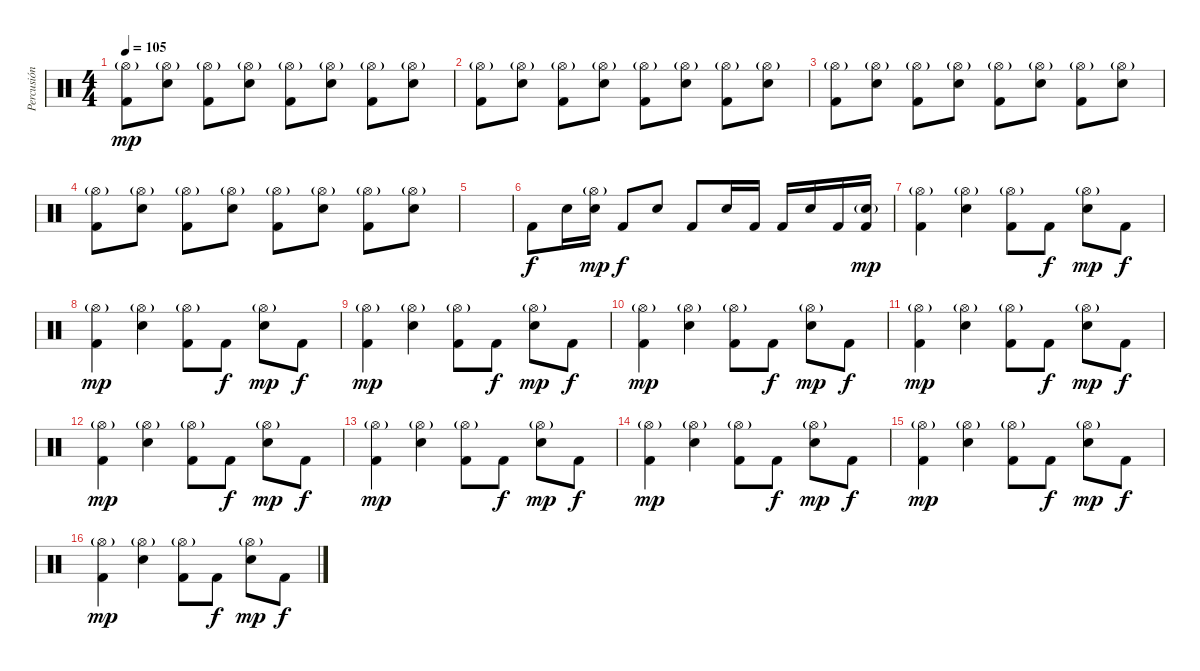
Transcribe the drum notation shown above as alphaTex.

\track ("Percusión" "Percusión") {instrument percussion}
\staff {score}
\articulation defaults
\ts (4 4)
\tempo 105
\clef neutral
\ks c
("Hi-Hat (open)"{g} "Kick (hit) 2").8{dy mp} ("Hi-Hat (open)"{g} "Electric Snare (hit)").8 ("Hi-Hat (open)"{g} "Kick (hit) 2").8 ("Hi-Hat (open)"{g} "Electric Snare (hit)").8 ("Hi-Hat (open)"{g} "Kick (hit) 2").8 ("Hi-Hat (open)"{g} "Electric Snare (hit)").8 ("Hi-Hat (open)"{g} "Kick (hit) 2").8 ("Hi-Hat (open)"{g} "Electric Snare (hit)").8 |
("Hi-Hat (open)"{g} "Kick (hit) 2").8 ("Hi-Hat (open)"{g} "Electric Snare (hit)").8 ("Hi-Hat (open)"{g} "Kick (hit) 2").8 ("Hi-Hat (open)"{g} "Electric Snare (hit)").8 ("Hi-Hat (open)"{g} "Kick (hit) 2").8 ("Hi-Hat (open)"{g} "Electric Snare (hit)").8 ("Hi-Hat (open)"{g} "Kick (hit) 2").8 ("Hi-Hat (open)"{g} "Electric Snare (hit)").8 |
("Hi-Hat (open)"{g} "Kick (hit) 2").8 ("Hi-Hat (open)"{g} "Electric Snare (hit)").8 ("Hi-Hat (open)"{g} "Kick (hit) 2").8 ("Hi-Hat (open)"{g} "Electric Snare (hit)").8 ("Hi-Hat (open)"{g} "Kick (hit) 2").8 ("Hi-Hat (open)"{g} "Electric Snare (hit)").8 ("Hi-Hat (open)"{g} "Kick (hit) 2").8 ("Hi-Hat (open)"{g} "Electric Snare (hit)").8 |
("Hi-Hat (open)"{g} "Kick (hit) 2").8 ("Hi-Hat (open)"{g} "Electric Snare (hit)").8 ("Hi-Hat (open)"{g} "Kick (hit) 2").8 ("Hi-Hat (open)"{g} "Electric Snare (hit)").8 ("Hi-Hat (open)"{g} "Kick (hit) 2").8 ("Hi-Hat (open)"{g} "Electric Snare (hit)").8 ("Hi-Hat (open)"{g} "Kick (hit) 2").8 ("Hi-Hat (open)"{g} "Electric Snare (hit)").8 |
|
"Kick (hit) 2".8{dy f} "Electric Snare (hit)".16 ("Hi-Hat (open)"{g} "Electric Snare (hit)").16{dy mp} "Kick (hit) 2".8{dy f} "Electric Snare (hit)".8 "Kick (hit) 2".8 "Electric Snare (hit)".16 "Kick (hit) 2".16 "Kick (hit) 2".16 "Electric Snare (hit)".16 "Kick (hit) 2".16 ("Electric Snare (hit)"{g} "Kick (hit) 2").16{dy mp} |
("Hi-Hat (open)"{g} "Kick (hit) 2").4 ("Hi-Hat (open)"{g} "Electric Snare (hit)").4 ("Hi-Hat (open)"{g} "Kick (hit) 2").8 "Kick (hit) 2".8{dy f} ("Hi-Hat (open)"{g} "Electric Snare (hit)").8{dy mp} "Kick (hit) 2".8{dy f} |
("Hi-Hat (open)"{g} "Kick (hit) 2").4{dy mp} ("Hi-Hat (open)"{g} "Electric Snare (hit)").4 ("Hi-Hat (open)"{g} "Kick (hit) 2").8 "Kick (hit) 2".8{dy f} ("Hi-Hat (open)"{g} "Electric Snare (hit)").8{dy mp} "Kick (hit) 2".8{dy f} |
("Hi-Hat (open)"{g} "Kick (hit) 2").4{dy mp} ("Hi-Hat (open)"{g} "Electric Snare (hit)").4 ("Hi-Hat (open)"{g} "Kick (hit) 2").8 "Kick (hit) 2".8{dy f} ("Hi-Hat (open)"{g} "Electric Snare (hit)").8{dy mp} "Kick (hit) 2".8{dy f} |
("Hi-Hat (open)"{g} "Kick (hit) 2").4{dy mp} ("Hi-Hat (open)"{g} "Electric Snare (hit)").4 ("Hi-Hat (open)"{g} "Kick (hit) 2").8 "Kick (hit) 2".8{dy f} ("Hi-Hat (open)"{g} "Electric Snare (hit)").8{dy mp} "Kick (hit) 2".8{dy f} |
("Hi-Hat (open)"{g} "Kick (hit) 2").4{dy mp} ("Hi-Hat (open)"{g} "Electric Snare (hit)").4 ("Hi-Hat (open)"{g} "Kick (hit) 2").8 "Kick (hit) 2".8{dy f} ("Hi-Hat (open)"{g} "Electric Snare (hit)").8{dy mp} "Kick (hit) 2".8{dy f} |
("Hi-Hat (open)"{g} "Kick (hit) 2").4{dy mp} ("Hi-Hat (open)"{g} "Electric Snare (hit)").4 ("Hi-Hat (open)"{g} "Kick (hit) 2").8 "Kick (hit) 2".8{dy f} ("Hi-Hat (open)"{g} "Electric Snare (hit)").8{dy mp} "Kick (hit) 2".8{dy f} |
("Hi-Hat (open)"{g} "Kick (hit) 2").4{dy mp} ("Hi-Hat (open)"{g} "Electric Snare (hit)").4 ("Hi-Hat (open)"{g} "Kick (hit) 2").8 "Kick (hit) 2".8{dy f} ("Hi-Hat (open)"{g} "Electric Snare (hit)").8{dy mp} "Kick (hit) 2".8{dy f} |
("Hi-Hat (open)"{g} "Kick (hit) 2").4{dy mp} ("Hi-Hat (open)"{g} "Electric Snare (hit)").4 ("Hi-Hat (open)"{g} "Kick (hit) 2").8 "Kick (hit) 2".8{dy f} ("Hi-Hat (open)"{g} "Electric Snare (hit)").8{dy mp} "Kick (hit) 2".8{dy f} |
("Hi-Hat (open)"{g} "Kick (hit) 2").4{dy mp} ("Hi-Hat (open)"{g} "Electric Snare (hit)").4 ("Hi-Hat (open)"{g} "Kick (hit) 2").8 "Kick (hit) 2".8{dy f} ("Hi-Hat (open)"{g} "Electric Snare (hit)").8{dy mp} "Kick (hit) 2".8{dy f} |
("Hi-Hat (open)"{g} "Kick (hit) 2").4{dy mp} ("Hi-Hat (open)"{g} "Electric Snare (hit)").4 ("Hi-Hat (open)"{g} "Kick (hit) 2").8 "Kick (hit) 2".8{dy f} ("Hi-Hat (open)"{g} "Electric Snare (hit)").8{dy mp} "Kick (hit) 2".8{dy f}
